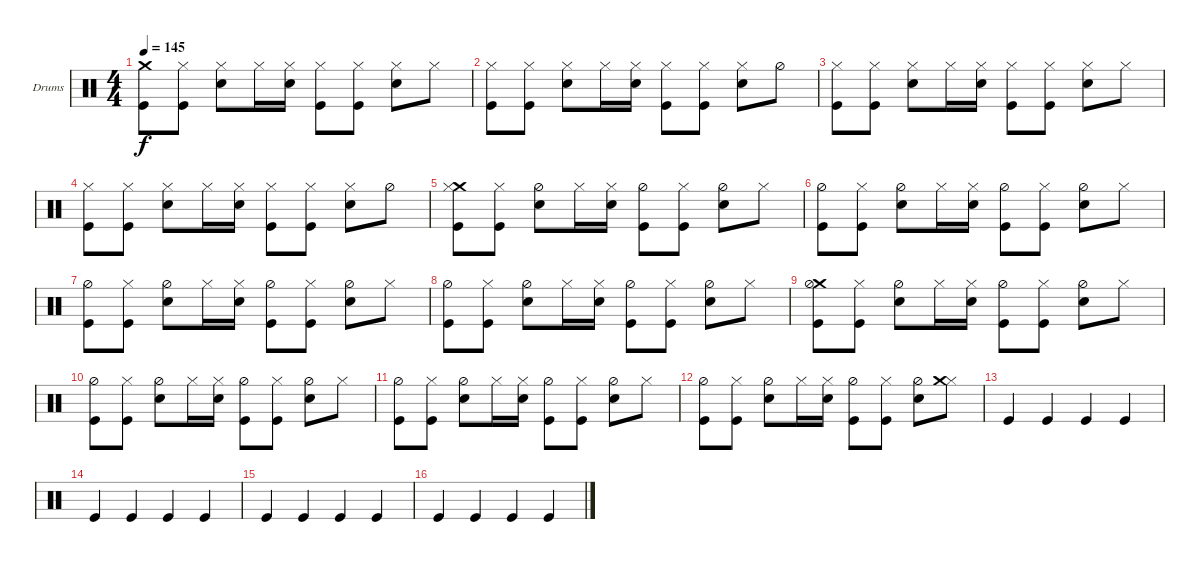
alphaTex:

\defaultSystemsLayout 4
\bracketExtendMode groupsimilarinstruments
\firstSystemTrackNameOrientation horizontal
\otherSystemsTrackNameOrientation horizontal
\track ("Nikola" "Drums") {instrument percussion}
\staff {score}
\articulation defaults
\ts (4 4)
\tempo 145
\clef neutral
\ks c
("Kick (hit)" "Crash medium (hit)").8{dy f} ("Kick (hit)" "Hi-Hat (closed)").8 ("Snare (hit) 2" "Hi-Hat (closed)").8 "Hi-Hat (closed)".16 ("Snare (hit) 2" "Hi-Hat (closed)").16 ("Kick (hit)" "Hi-Hat (closed)").8 ("Kick (hit)" "Hi-Hat (closed)").8 ("Snare (hit) 2" "Hi-Hat (closed)").8 "Hi-Hat (closed)".8 |
("Kick (hit)" "Hi-Hat (closed)").8 ("Kick (hit)" "Hi-Hat (closed)").8 ("Snare (hit) 2" "Hi-Hat (closed)").8 "Hi-Hat (closed)".16 ("Snare (hit) 2" "Hi-Hat (closed)").16 ("Kick (hit)" "Hi-Hat (closed)").8 ("Kick (hit)" "Hi-Hat (closed)").8 ("Snare (hit) 2" "Hi-Hat (closed)").8 "Hi-Hat (half)".8 |
("Kick (hit)" "Hi-Hat (closed)").8 ("Kick (hit)" "Hi-Hat (closed)").8 ("Snare (hit) 2" "Hi-Hat (closed)").8 "Hi-Hat (closed)".16 ("Snare (hit) 2" "Hi-Hat (closed)").16 ("Kick (hit)" "Hi-Hat (closed)").8 ("Kick (hit)" "Hi-Hat (closed)").8 ("Snare (hit) 2" "Hi-Hat (closed)").8 "Hi-Hat (closed)".8 |
("Kick (hit)" "Hi-Hat (closed)").8 ("Kick (hit)" "Hi-Hat (closed)").8 ("Snare (hit) 2" "Hi-Hat (closed)").8 "Hi-Hat (closed)".16 ("Snare (hit) 2" "Hi-Hat (closed)").16 ("Kick (hit)" "Hi-Hat (closed)").8 ("Kick (hit)" "Hi-Hat (closed)").8 ("Snare (hit) 2" "Hi-Hat (closed)").8 "Hi-Hat (half)".8 |
("Kick (hit)" "Crash medium (hit)" "Hi-Hat (closed)").8 ("Kick (hit)" "Hi-Hat (closed)").8 ("Snare (hit) 2" "Hi-Hat (half)").8 "Hi-Hat (closed)".16 ("Snare (hit) 2" "Hi-Hat (closed)").16 ("Kick (hit)" "Hi-Hat (half)").8 ("Kick (hit)" "Hi-Hat (closed)").8 ("Snare (hit) 2" "Hi-Hat (half)").8 "Hi-Hat (closed)".8 |
("Kick (hit)" "Hi-Hat (half)").8 ("Kick (hit)" "Hi-Hat (closed)").8 ("Snare (hit) 2" "Hi-Hat (half)").8 "Hi-Hat (closed)".16 ("Snare (hit) 2" "Hi-Hat (closed)").16 ("Kick (hit)" "Hi-Hat (half)").8 ("Kick (hit)" "Hi-Hat (closed)").8 ("Snare (hit) 2" "Hi-Hat (half)").8 "Hi-Hat (closed)".8 |
("Kick (hit)" "Hi-Hat (half)").8 ("Kick (hit)" "Hi-Hat (closed)").8 ("Snare (hit) 2" "Hi-Hat (half)").8 "Hi-Hat (closed)".16 ("Snare (hit) 2" "Hi-Hat (closed)").16 ("Kick (hit)" "Hi-Hat (half)").8 ("Kick (hit)" "Hi-Hat (closed)").8 ("Snare (hit) 2" "Hi-Hat (half)").8 "Hi-Hat (closed)".8 |
("Kick (hit)" "Hi-Hat (half)").8 ("Kick (hit)" "Hi-Hat (closed)").8 ("Snare (hit) 2" "Hi-Hat (half)").8 "Hi-Hat (closed)".16 ("Snare (hit) 2" "Hi-Hat (closed)").16 ("Kick (hit)" "Hi-Hat (half)").8 ("Kick (hit)" "Hi-Hat (closed)").8 ("Snare (hit) 2" "Hi-Hat (half)").8 "Hi-Hat (closed)".8 |
("Kick (hit)" "Crash medium (hit)" "Hi-Hat (half)").8 ("Kick (hit)" "Hi-Hat (closed)").8 ("Snare (hit) 2" "Hi-Hat (half)").8 "Hi-Hat (closed)".16 ("Snare (hit) 2" "Hi-Hat (closed)").16 ("Kick (hit)" "Hi-Hat (half)").8 ("Kick (hit)" "Hi-Hat (closed)").8 ("Snare (hit) 2" "Hi-Hat (half)").8 "Hi-Hat (closed)".8 |
("Kick (hit)" "Hi-Hat (half)").8 ("Kick (hit)" "Hi-Hat (closed)").8 ("Snare (hit) 2" "Hi-Hat (half)").8 "Hi-Hat (closed)".16 ("Snare (hit) 2" "Hi-Hat (closed)").16 ("Kick (hit)" "Hi-Hat (half)").8 ("Kick (hit)" "Hi-Hat (closed)").8 ("Snare (hit) 2" "Hi-Hat (half)").8 "Hi-Hat (closed)".8 |
("Kick (hit)" "Hi-Hat (half)").8 ("Kick (hit)" "Hi-Hat (closed)").8 ("Snare (hit) 2" "Hi-Hat (half)").8 "Hi-Hat (closed)".16 ("Snare (hit) 2" "Hi-Hat (closed)").16 ("Kick (hit)" "Hi-Hat (half)").8 ("Kick (hit)" "Hi-Hat (closed)").8 ("Snare (hit) 2" "Hi-Hat (half)").8 "Hi-Hat (closed)".8 |
("Kick (hit)" "Hi-Hat (half)").8 ("Kick (hit)" "Hi-Hat (closed)").8 ("Snare (hit) 2" "Hi-Hat (half)").8 "Hi-Hat (closed)".16 ("Snare (hit) 2" "Hi-Hat (closed)").16 ("Kick (hit)" "Hi-Hat (half)").8 ("Kick (hit)" "Hi-Hat (closed)").8 ("Snare (hit) 2" "Hi-Hat (half)").8 ("Hi-Hat (closed)" "Crash medium (hit)").8 |
"Kick (hit)".4 "Kick (hit)".4 "Kick (hit)".4 "Kick (hit)".4 |
"Kick (hit)".4 "Kick (hit)".4 "Kick (hit)".4 "Kick (hit)".4 |
"Kick (hit)".4 "Kick (hit)".4 "Kick (hit)".4 "Kick (hit)".4 |
"Kick (hit)".4 "Kick (hit)".4 "Kick (hit)".4 "Kick (hit)".4
